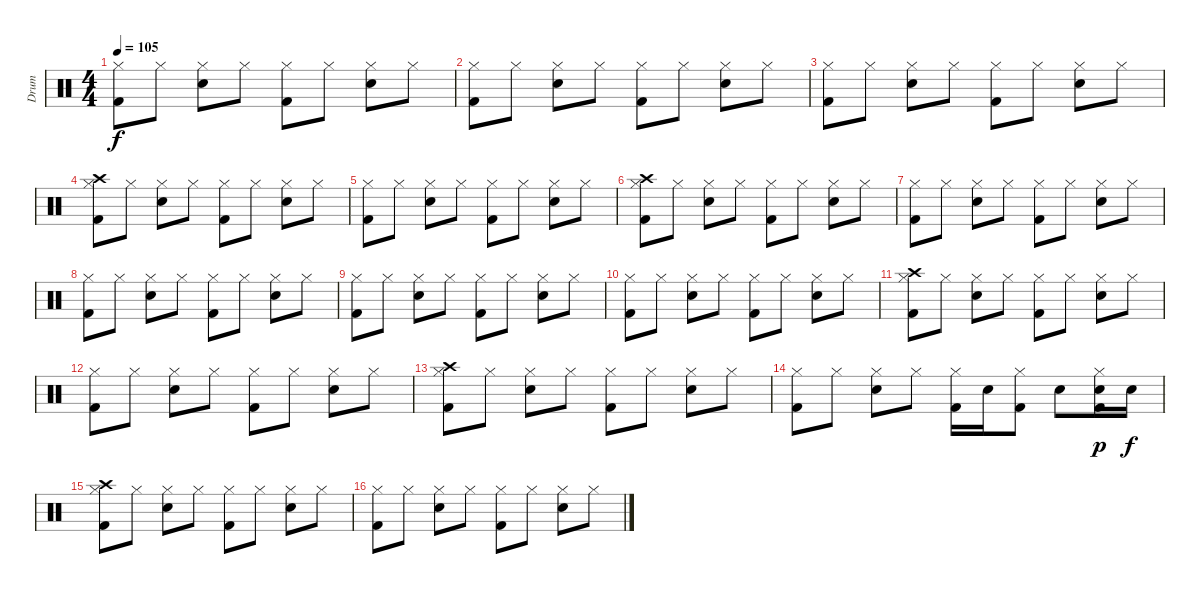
\track ("Drum" "Drum") {instrument percussion}
\staff {score}
\articulation defaults
\ts (4 4)
\tempo 105
\clef neutral
\ks c
("Hi-Hat (closed)" "Kick (hit) 2").8{dy f} "Hi-Hat (closed)".8 ("Electric Snare (hit)" "Hi-Hat (closed)").8 "Hi-Hat (closed)".8 ("Hi-Hat (closed)" "Kick (hit) 2").8 "Hi-Hat (closed)".8 ("Electric Snare (hit)" "Hi-Hat (closed)").8 "Hi-Hat (closed)".8 |
("Hi-Hat (closed)" "Kick (hit) 2").8 "Hi-Hat (closed)".8 ("Electric Snare (hit)" "Hi-Hat (closed)").8 "Hi-Hat (closed)".8 ("Hi-Hat (closed)" "Kick (hit) 2").8 "Hi-Hat (closed)".8 ("Electric Snare (hit)" "Hi-Hat (closed)").8 "Hi-Hat (closed)".8 |
("Hi-Hat (closed)" "Kick (hit) 2").8 "Hi-Hat (closed)".8 ("Electric Snare (hit)" "Hi-Hat (closed)").8 "Hi-Hat (closed)".8 ("Hi-Hat (closed)" "Kick (hit) 2").8 "Hi-Hat (closed)".8 ("Electric Snare (hit)" "Hi-Hat (closed)").8 "Hi-Hat (closed)".8 |
("Crash high (hit)" "Hi-Hat (closed)" "Kick (hit) 2").8 "Hi-Hat (closed)".8 ("Electric Snare (hit)" "Hi-Hat (closed)").8 "Hi-Hat (closed)".8 ("Hi-Hat (closed)" "Kick (hit) 2").8 "Hi-Hat (closed)".8 ("Electric Snare (hit)" "Hi-Hat (closed)").8 "Hi-Hat (closed)".8 |
("Hi-Hat (closed)" "Kick (hit) 2").8 "Hi-Hat (closed)".8 ("Electric Snare (hit)" "Hi-Hat (closed)").8 "Hi-Hat (closed)".8 ("Hi-Hat (closed)" "Kick (hit) 2").8 "Hi-Hat (closed)".8 ("Electric Snare (hit)" "Hi-Hat (closed)").8 "Hi-Hat (closed)".8 |
("Crash high (hit)" "Hi-Hat (closed)" "Kick (hit) 2").8 "Hi-Hat (closed)".8 ("Electric Snare (hit)" "Hi-Hat (closed)").8 "Hi-Hat (closed)".8 ("Hi-Hat (closed)" "Kick (hit) 2").8 "Hi-Hat (closed)".8 ("Electric Snare (hit)" "Hi-Hat (closed)").8 "Hi-Hat (closed)".8 |
("Hi-Hat (closed)" "Kick (hit) 2").8 "Hi-Hat (closed)".8 ("Electric Snare (hit)" "Hi-Hat (closed)").8 "Hi-Hat (closed)".8 ("Hi-Hat (closed)" "Kick (hit) 2").8 "Hi-Hat (closed)".8 ("Electric Snare (hit)" "Hi-Hat (closed)").8 "Hi-Hat (closed)".8 |
("Hi-Hat (closed)" "Kick (hit) 2").8 "Hi-Hat (closed)".8 ("Electric Snare (hit)" "Hi-Hat (closed)").8 "Hi-Hat (closed)".8 ("Hi-Hat (closed)" "Kick (hit) 2").8 "Hi-Hat (closed)".8 ("Electric Snare (hit)" "Hi-Hat (closed)").8 "Hi-Hat (closed)".8 |
("Hi-Hat (closed)" "Kick (hit) 2").8 "Hi-Hat (closed)".8 ("Electric Snare (hit)" "Hi-Hat (closed)").8 "Hi-Hat (closed)".8 ("Hi-Hat (closed)" "Kick (hit) 2").8 "Hi-Hat (closed)".8 ("Electric Snare (hit)" "Hi-Hat (closed)").8 "Hi-Hat (closed)".8 |
("Hi-Hat (closed)" "Kick (hit) 2").8 "Hi-Hat (closed)".8 ("Electric Snare (hit)" "Hi-Hat (closed)").8 "Hi-Hat (closed)".8 ("Hi-Hat (closed)" "Kick (hit) 2").8 "Hi-Hat (closed)".8 ("Electric Snare (hit)" "Hi-Hat (closed)").8 "Hi-Hat (closed)".8 |
("Crash high (hit)" "Hi-Hat (closed)" "Kick (hit) 2").8 "Hi-Hat (closed)".8 ("Electric Snare (hit)" "Hi-Hat (closed)").8 "Hi-Hat (closed)".8 ("Hi-Hat (closed)" "Kick (hit) 2").8 "Hi-Hat (closed)".8 ("Electric Snare (hit)" "Hi-Hat (closed)").8 "Hi-Hat (closed)".8 |
("Hi-Hat (closed)" "Kick (hit) 2").8 "Hi-Hat (closed)".8 ("Electric Snare (hit)" "Hi-Hat (closed)").8 "Hi-Hat (closed)".8 ("Hi-Hat (closed)" "Kick (hit) 2").8 "Hi-Hat (closed)".8 ("Electric Snare (hit)" "Hi-Hat (closed)").8 "Hi-Hat (closed)".8 |
("Crash high (hit)" "Hi-Hat (closed)" "Kick (hit) 2").8 "Hi-Hat (closed)".8 ("Electric Snare (hit)" "Hi-Hat (closed)").8 "Hi-Hat (closed)".8 ("Hi-Hat (closed)" "Kick (hit) 2").8 "Hi-Hat (closed)".8 ("Electric Snare (hit)" "Hi-Hat (closed)").8 "Hi-Hat (closed)".8 |
("Hi-Hat (closed)" "Kick (hit) 2").8 "Hi-Hat (closed)".8 ("Electric Snare (hit)" "Hi-Hat (closed)").8 "Hi-Hat (closed)".8 ("Hi-Hat (closed)" "Kick (hit) 2").16 "Electric Snare (hit)".16 ("Hi-Hat (closed)" "Kick (hit) 2").8 "Electric Snare (hit)".8 ("Electric Snare (hit)" "Hi-Hat (closed)" "Kick (hit) 2").16{dy p} "Electric Snare (hit)".16{dy f} |
("Crash high (hit)" "Hi-Hat (closed)" "Kick (hit) 2").8 "Hi-Hat (closed)".8 ("Electric Snare (hit)" "Hi-Hat (closed)").8 "Hi-Hat (closed)".8 ("Hi-Hat (closed)" "Kick (hit) 2").8 "Hi-Hat (closed)".8 ("Electric Snare (hit)" "Hi-Hat (closed)").8 "Hi-Hat (closed)".8 |
("Hi-Hat (closed)" "Kick (hit) 2").8 "Hi-Hat (closed)".8 ("Electric Snare (hit)" "Hi-Hat (closed)").8 "Hi-Hat (closed)".8 ("Hi-Hat (closed)" "Kick (hit) 2").8 "Hi-Hat (closed)".8 ("Electric Snare (hit)" "Hi-Hat (closed)").8 "Hi-Hat (closed)".8
